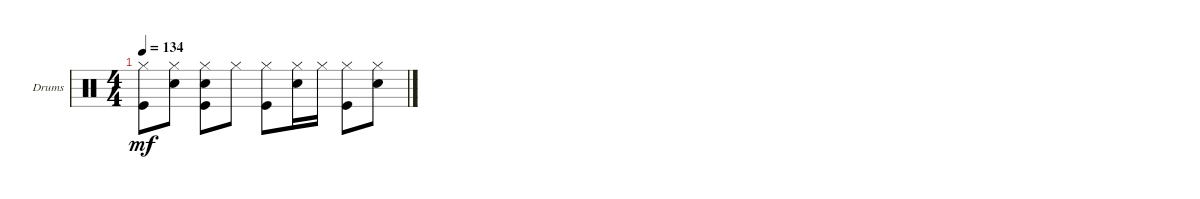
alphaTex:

\bracketExtendMode groupsimilarinstruments
\firstSystemTrackNameOrientation horizontal
\otherSystemsTrackNameOrientation horizontal
\track ("DRUMSET" "Drums") {instrument percussion}
\staff {score}
\articulation defaults
\ts (4 4)
\tempo 134
\clef neutral
\ks c
("Kick (hit)" "Hi-Hat (closed)").8{dy mf} ("Snare (hit) 2" "Hi-Hat (closed)").8 ("Kick (hit)" "Snare (hit) 2" "Hi-Hat (closed)").8 "Hi-Hat (closed)".8 ("Kick (hit)" "Hi-Hat (closed)").8 ("Snare (hit) 2" "Hi-Hat (closed)").16 "Hi-Hat (closed)".16 ("Kick (hit)" "Hi-Hat (closed)").8 ("Snare (hit) 2" "Hi-Hat (closed)").8
